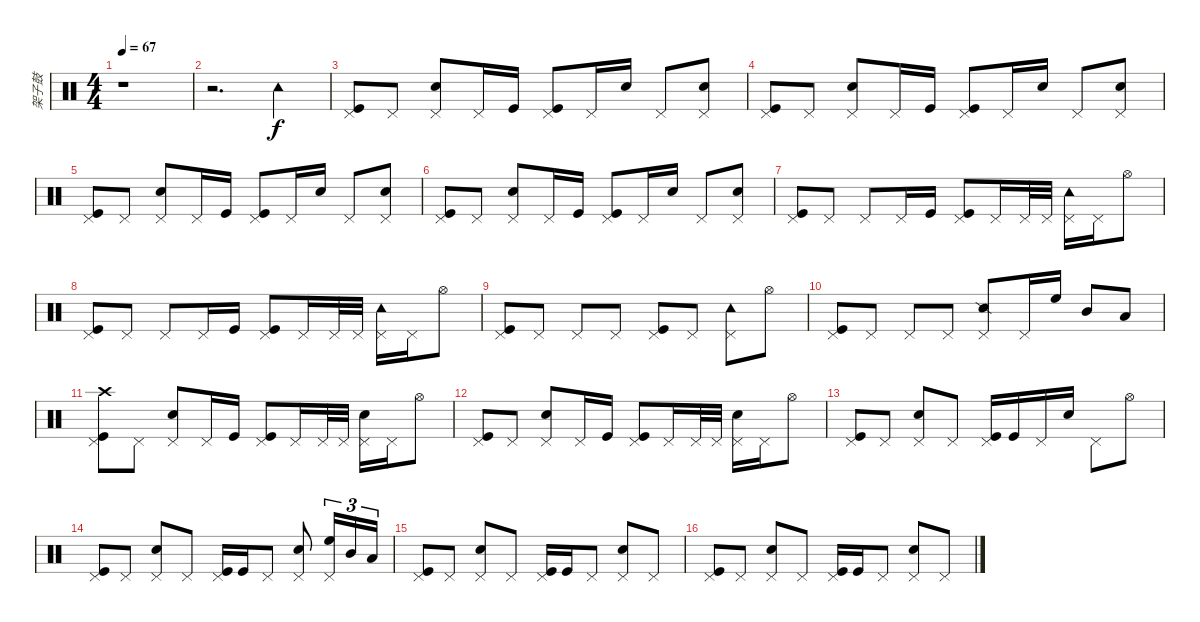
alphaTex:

\track ("架子鼓" "架子鼓") {instrument percussion}
\staff {score}
\articulation defaults
\ts (4 4)
\tempo 67
\clef neutral
\ks c
r.1{dy f} |
r.2{d} "Tambourine (hit)".4 |
("Kick (hit)" "Pedal Hi-Hat (hit)").8 "Pedal Hi-Hat (hit)".8 ("Snare (hit) 2" "Pedal Hi-Hat (hit)").8 "Pedal Hi-Hat (hit)".16 "Kick (hit)".16 ("Kick (hit)" "Pedal Hi-Hat (hit)").8 "Pedal Hi-Hat (hit)".16 "Snare (hit) 2".16 "Pedal Hi-Hat (hit)".8 ("Snare (hit) 2" "Pedal Hi-Hat (hit)").8 |
("Kick (hit)" "Pedal Hi-Hat (hit)").8 "Pedal Hi-Hat (hit)".8 ("Snare (hit) 2" "Pedal Hi-Hat (hit)").8 "Pedal Hi-Hat (hit)".16 "Kick (hit)".16 ("Kick (hit)" "Pedal Hi-Hat (hit)").8 "Pedal Hi-Hat (hit)".16 "Snare (hit) 2".16 "Pedal Hi-Hat (hit)".8 ("Snare (hit) 2" "Pedal Hi-Hat (hit)").8 |
("Kick (hit)" "Pedal Hi-Hat (hit)").8 "Pedal Hi-Hat (hit)".8 ("Snare (hit) 2" "Pedal Hi-Hat (hit)").8 "Pedal Hi-Hat (hit)".16 "Kick (hit)".16 ("Kick (hit)" "Pedal Hi-Hat (hit)").8 "Pedal Hi-Hat (hit)".16 "Snare (hit) 2".16 "Pedal Hi-Hat (hit)".8 ("Snare (hit) 2" "Pedal Hi-Hat (hit)").8 |
("Kick (hit)" "Pedal Hi-Hat (hit)").8 "Pedal Hi-Hat (hit)".8 ("Snare (hit) 2" "Pedal Hi-Hat (hit)").8 "Pedal Hi-Hat (hit)".16 "Kick (hit)".16 ("Kick (hit)" "Pedal Hi-Hat (hit)").8 "Pedal Hi-Hat (hit)".16 "Snare (hit) 2".16 "Pedal Hi-Hat (hit)".8 ("Snare (hit) 2" "Pedal Hi-Hat (hit)").8 |
("Kick (hit)" "Pedal Hi-Hat (hit)").8 "Pedal Hi-Hat (hit)".8 "Pedal Hi-Hat (hit)".8 "Pedal Hi-Hat (hit)".16 "Kick (hit)".16 ("Kick (hit)" "Pedal Hi-Hat (hit)").8 "Pedal Hi-Hat (hit)".16 "Pedal Hi-Hat (hit)".32 "Pedal Hi-Hat (hit)".32 ("Tambourine (hit)" "Pedal Hi-Hat (hit)").16 "Pedal Hi-Hat (hit)".16 "Hi-Hat (open)".8 |
("Kick (hit)" "Pedal Hi-Hat (hit)").8 "Pedal Hi-Hat (hit)".8 "Pedal Hi-Hat (hit)".8 "Pedal Hi-Hat (hit)".16 "Kick (hit)".16 ("Kick (hit)" "Pedal Hi-Hat (hit)").8 "Pedal Hi-Hat (hit)".16 "Pedal Hi-Hat (hit)".32 "Pedal Hi-Hat (hit)".32 ("Tambourine (hit)" "Pedal Hi-Hat (hit)").16 "Pedal Hi-Hat (hit)".16 "Hi-Hat (open)".8 |
("Kick (hit)" "Pedal Hi-Hat (hit)").8 "Pedal Hi-Hat (hit)".8 "Pedal Hi-Hat (hit)".8 "Pedal Hi-Hat (hit)".8 ("Kick (hit)" "Pedal Hi-Hat (hit)").8 "Pedal Hi-Hat (hit)".8 ("Tambourine (hit)" "Pedal Hi-Hat (hit)").8 "Hi-Hat (open)".8 |
("Kick (hit)" "Pedal Hi-Hat (hit)").8 "Pedal Hi-Hat (hit)".8 "Pedal Hi-Hat (hit)".8 "Pedal Hi-Hat (hit)".8 ("Snare (side stick) 2" "Pedal Hi-Hat (hit)").8 "Pedal Hi-Hat (hit)".16 "High Floor Tom (hit)".16 "Mid Tom (hit)".8 "Low Tom (hit)".8 |
("Kick (hit)" "Pedal Hi-Hat (hit)" "Crash high (hit)").8 "Pedal Hi-Hat (hit)".8 ("Snare (hit) 2" "Pedal Hi-Hat (hit)").8 "Pedal Hi-Hat (hit)".16 "Kick (hit)".16 ("Kick (hit)" "Pedal Hi-Hat (hit)").8 "Pedal Hi-Hat (hit)".16 "Pedal Hi-Hat (hit)".32 "Pedal Hi-Hat (hit)".32 ("Snare (hit) 2" "Pedal Hi-Hat (hit)").16 "Pedal Hi-Hat (hit)".16 "Hi-Hat (open)".8 |
("Kick (hit)" "Pedal Hi-Hat (hit)").8 "Pedal Hi-Hat (hit)".8 ("Snare (hit) 2" "Pedal Hi-Hat (hit)").8 "Pedal Hi-Hat (hit)".16 "Kick (hit)".16 ("Kick (hit)" "Pedal Hi-Hat (hit)").8 "Pedal Hi-Hat (hit)".16 "Pedal Hi-Hat (hit)".32 "Pedal Hi-Hat (hit)".32 ("Snare (hit) 2" "Pedal Hi-Hat (hit)").16 "Pedal Hi-Hat (hit)".16 "Hi-Hat (open)".8 |
("Kick (hit)" "Pedal Hi-Hat (hit)").8 "Pedal Hi-Hat (hit)".8 ("Snare (hit) 2" "Pedal Hi-Hat (hit)").8 "Pedal Hi-Hat (hit)".8 ("Kick (hit)" "Pedal Hi-Hat (hit)").16 "Kick (hit)".16 "Pedal Hi-Hat (hit)".16 "Snare (hit) 2".16 "Pedal Hi-Hat (hit)".8 "Hi-Hat (open)".8 |
("Kick (hit)" "Pedal Hi-Hat (hit)").8 "Pedal Hi-Hat (hit)".8 ("Snare (hit) 2" "Pedal Hi-Hat (hit)").8 "Pedal Hi-Hat (hit)".8 ("Kick (hit)" "Pedal Hi-Hat (hit)").16 "Kick (hit)".16 "Pedal Hi-Hat (hit)".8 ("Snare (hit) 2" "Pedal Hi-Hat (hit)").8 ("High Floor Tom (hit)" "Pedal Hi-Hat (hit)").16{tu (3 2)} "Mid Tom (hit)".16{tu (3 2)} "Low Tom (hit)".16{tu (3 2)} |
("Kick (hit)" "Pedal Hi-Hat (hit)").8 "Pedal Hi-Hat (hit)".8 ("Snare (hit) 2" "Pedal Hi-Hat (hit)").8 "Pedal Hi-Hat (hit)".8 ("Kick (hit)" "Pedal Hi-Hat (hit)").16 "Kick (hit)".16 "Pedal Hi-Hat (hit)".8 ("Snare (hit) 2" "Pedal Hi-Hat (hit)").8 "Pedal Hi-Hat (hit)".8 |
("Kick (hit)" "Pedal Hi-Hat (hit)").8 "Pedal Hi-Hat (hit)".8 ("Snare (hit) 2" "Pedal Hi-Hat (hit)").8 "Pedal Hi-Hat (hit)".8 ("Kick (hit)" "Pedal Hi-Hat (hit)").16 "Kick (hit)".16 "Pedal Hi-Hat (hit)".8 ("Snare (hit) 2" "Pedal Hi-Hat (hit)").8 "Pedal Hi-Hat (hit)".8
